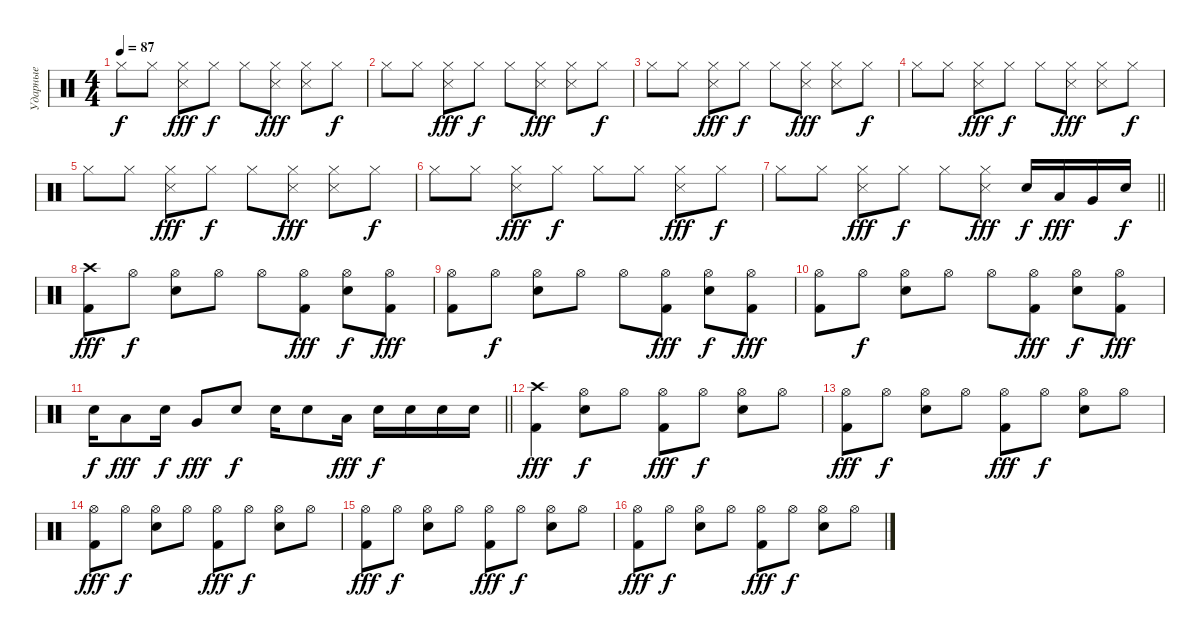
\track ("Ударные" "Ударные") {instrument percussion}
\staff {score}
\articulation defaults
\ts (4 4)
\tempo 87
\clef neutral
\ks c "Hi-Hat (closed)".8{dy f} "Hi-Hat (closed)".8
("Snare (side stick) 3" "Hi-Hat (closed)").8{dy fff} "Hi-Hat (closed)".8{dy f} "Hi-Hat (closed)".8 ("Snare (side stick) 3" "Hi-Hat (closed)").8{dy fff} ("Snare (side stick) 3" "Hi-Hat (closed)").8 "Hi-Hat (closed)".8{dy f} |
"Hi-Hat (closed)".8 "Hi-Hat (closed)".8 ("Snare (side stick) 3" "Hi-Hat (closed)").8{dy fff} "Hi-Hat (closed)".8{dy f} "Hi-Hat (closed)".8 ("Snare (side stick) 3" "Hi-Hat (closed)").8{dy fff} ("Snare (side stick) 3" "Hi-Hat (closed)").8 "Hi-Hat (closed)".8{dy f} |
"Hi-Hat (closed)".8 "Hi-Hat (closed)".8 ("Snare (side stick) 3" "Hi-Hat (closed)").8{dy fff} "Hi-Hat (closed)".8{dy f} "Hi-Hat (closed)".8 ("Snare (side stick) 3" "Hi-Hat (closed)").8{dy fff} ("Snare (side stick) 3" "Hi-Hat (closed)").8 "Hi-Hat (closed)".8{dy f} |
"Hi-Hat (closed)".8 "Hi-Hat (closed)".8 ("Snare (side stick) 3" "Hi-Hat (closed)").8{dy fff} "Hi-Hat (closed)".8{dy f} "Hi-Hat (closed)".8 ("Snare (side stick) 3" "Hi-Hat (closed)").8{dy fff} ("Snare (side stick) 3" "Hi-Hat (closed)").8 "Hi-Hat (closed)".8{dy f} |
"Hi-Hat (closed)".8 "Hi-Hat (closed)".8 ("Snare (side stick) 3" "Hi-Hat (closed)").8{dy fff} "Hi-Hat (closed)".8{dy f} "Hi-Hat (closed)".8 ("Snare (side stick) 3" "Hi-Hat (closed)").8{dy fff} ("Snare (side stick) 3" "Hi-Hat (closed)").8 "Hi-Hat (closed)".8{dy f} |
"Hi-Hat (closed)".8 "Hi-Hat (closed)".8 ("Snare (side stick) 3" "Hi-Hat (closed)").8{dy fff} "Hi-Hat (closed)".8{dy f} "Hi-Hat (closed)".8 "Hi-Hat (closed)".8 ("Snare (side stick) 3" "Hi-Hat (closed)").8{dy fff} "Hi-Hat (closed)".8{dy f} |
\barLineRight lightlight "Hi-Hat (closed)".8 "Hi-Hat (closed)".8
("Snare (side stick) 3" "Hi-Hat (closed)").8{dy fff} "Hi-Hat (closed)".8{dy f} "Hi-Hat (closed)".8 ("Snare (side stick) 3" "Hi-Hat (closed)").8{dy fff} "Snare (hit) 2".16{dy f} "Low Tom (hit)".16{dy fff} "Very Low Tom (hit)".16 "Snare (hit) 2".16{dy f} |
("Kick (hit) 2" "Crash high (hit)").8{dy fff} "Hi-Hat (open)".8{dy f} ("Snare (hit) 2" "Hi-Hat (open)").8 "Hi-Hat (open)".8 "Hi-Hat (open)".8 ("Kick (hit) 2" "Hi-Hat (open)").8{dy fff} ("Snare (hit) 2" "Hi-Hat (open)").8{dy f} ("Kick (hit) 2" "Hi-Hat (open)").8{dy fff} |
("Kick (hit) 2" "Hi-Hat (open)").8 "Hi-Hat (open)".8{dy f} ("Snare (hit) 2" "Hi-Hat (open)").8 "Hi-Hat (open)".8 "Hi-Hat (open)".8 ("Kick (hit) 2" "Hi-Hat (open)").8{dy fff} ("Snare (hit) 2" "Hi-Hat (open)").8{dy f} ("Kick (hit) 2" "Hi-Hat (open)").8{dy fff} |
("Kick (hit) 2" "Hi-Hat (open)").8 "Hi-Hat (open)".8{dy f} ("Snare (hit) 2" "Hi-Hat (open)").8 "Hi-Hat (open)".8 "Hi-Hat (open)".8 ("Kick (hit) 2" "Hi-Hat (open)").8{dy fff} ("Snare (hit) 2" "Hi-Hat (open)").8{dy f} ("Kick (hit) 2" "Hi-Hat (open)").8{dy fff} |
\barLineRight lightlight "Snare (hit) 2".16{dy f} "Low Tom (hit)".8{dy fff} "Snare (hit) 2".16{dy f} "Very Low Tom (hit)".8{dy fff} "Snare (hit) 2".8{dy f} "Snare (hit) 2".16 "Snare (hit) 2".8 "Low Tom (hit)".16{dy fff} "Snare (hit) 2".16{dy f} "Snare (hit) 2".16 "Snare (hit) 2".16 "Snare (hit) 2".16
|
("Kick (hit) 2" "Crash high (hit)").4{dy fff} ("Snare (hit) 2" "Hi-Hat (open)").8{dy f} "Hi-Hat (open)".8 ("Kick (hit) 2" "Hi-Hat (open)").8{dy fff} "Hi-Hat (open)".8{dy f} ("Snare (hit) 2" "Hi-Hat (open)").8 "Hi-Hat (open)".8 |
("Kick (hit) 2" "Hi-Hat (open)").8{dy fff} "Hi-Hat (open)".8{dy f} ("Snare (hit) 2" "Hi-Hat (open)").8 "Hi-Hat (open)".8 ("Kick (hit) 2" "Hi-Hat (open)").8{dy fff} "Hi-Hat (open)".8{dy f} ("Snare (hit) 2" "Hi-Hat (open)").8 "Hi-Hat (open)".8 |
("Kick (hit) 2" "Hi-Hat (open)").8{dy fff} "Hi-Hat (open)".8{dy f} ("Snare (hit) 2" "Hi-Hat (open)").8 "Hi-Hat (open)".8 ("Kick (hit) 2" "Hi-Hat (open)").8{dy fff} "Hi-Hat (open)".8{dy f} ("Snare (hit) 2" "Hi-Hat (open)").8 "Hi-Hat (open)".8 |
("Kick (hit) 2" "Hi-Hat (open)").8{dy fff} "Hi-Hat (open)".8{dy f} ("Snare (hit) 2" "Hi-Hat (open)").8 "Hi-Hat (open)".8 ("Kick (hit) 2" "Hi-Hat (open)").8{dy fff} "Hi-Hat (open)".8{dy f} ("Snare (hit) 2" "Hi-Hat (open)").8 "Hi-Hat (open)".8 |
("Kick (hit) 2" "Hi-Hat (open)").8{dy fff} "Hi-Hat (open)".8{dy f} ("Snare (hit) 2" "Hi-Hat (open)").8 "Hi-Hat (open)".8 ("Kick (hit) 2" "Hi-Hat (open)").8{dy fff} "Hi-Hat (open)".8{dy f} ("Snare (hit) 2" "Hi-Hat (open)").8 "Hi-Hat (open)".8
